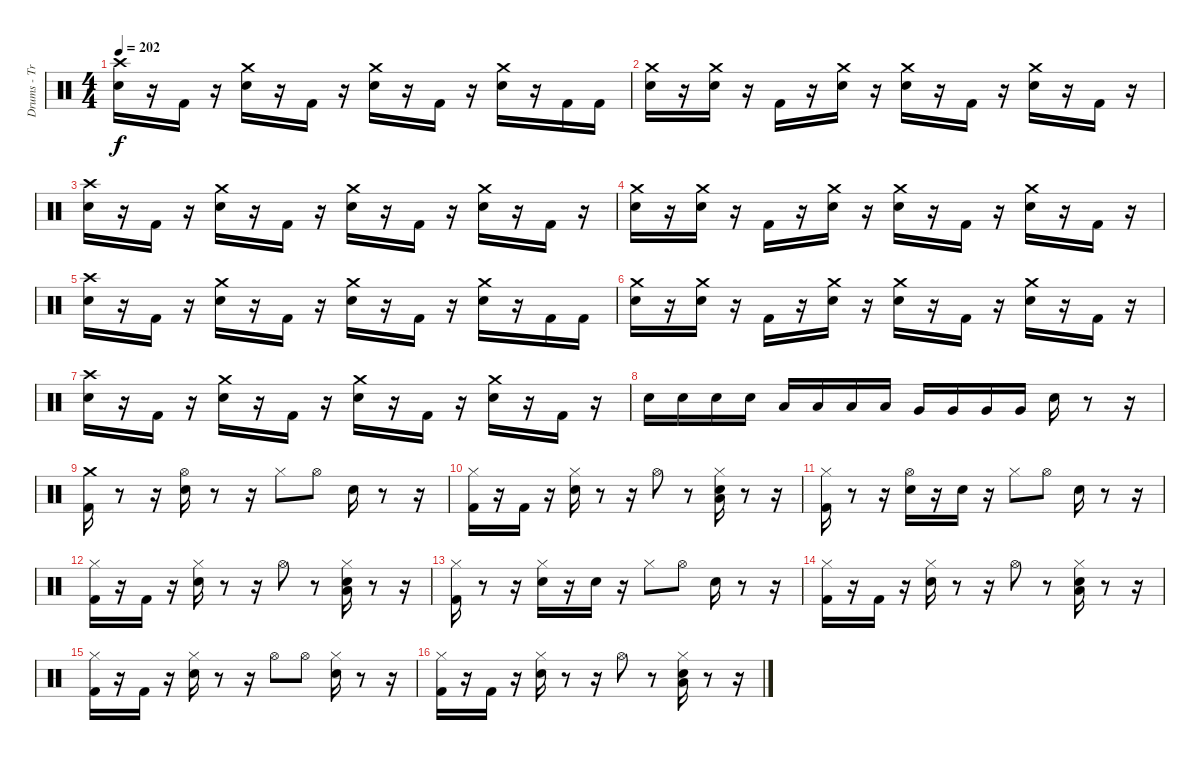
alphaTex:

\track ("Drums - Travis Barker" "Drums - Tr") {instrument percussion}
\staff {score}
\articulation defaults
\ts (4 4)
\tempo 202
\clef neutral
\ks c
("Electric Snare (hit)" "Crash high (hit)").16{dy f} r.16 "Kick (hit) 2".16 r.16 ("Electric Snare (hit)" "Crash medium (hit)").16 r.16 "Kick (hit) 2".16 r.16 ("Electric Snare (hit)" "Crash medium (hit)").16 r.16 "Kick (hit) 2".16 r.16 ("Electric Snare (hit)" "Crash medium (hit)").16 r.16 "Kick (hit) 2".16 "Kick (hit) 2".16 |
("Electric Snare (hit)" "Crash medium (hit)").16 r.16 ("Electric Snare (hit)" "Crash medium (hit)").16 r.16 "Kick (hit) 2".16 r.16 ("Electric Snare (hit)" "Crash medium (hit)").16 r.16 ("Electric Snare (hit)" "Crash medium (hit)").16 r.16 "Kick (hit) 2".16 r.16 ("Electric Snare (hit)" "Crash medium (hit)").16 r.16 "Kick (hit) 2".16 r.16 |
("Electric Snare (hit)" "Crash high (hit)").16 r.16 "Kick (hit) 2".16 r.16 ("Electric Snare (hit)" "Crash medium (hit)").16 r.16 "Kick (hit) 2".16 r.16 ("Electric Snare (hit)" "Crash medium (hit)").16 r.16 "Kick (hit) 2".16 r.16 ("Electric Snare (hit)" "Crash medium (hit)").16 r.16 "Kick (hit) 2".16 r.16 |
("Electric Snare (hit)" "Crash medium (hit)").16 r.16 ("Electric Snare (hit)" "Crash medium (hit)").16 r.16 "Kick (hit) 2".16 r.16 ("Electric Snare (hit)" "Crash medium (hit)").16 r.16 ("Electric Snare (hit)" "Crash medium (hit)").16 r.16 "Kick (hit) 2".16 r.16 ("Electric Snare (hit)" "Crash medium (hit)").16 r.16 "Kick (hit) 2".16 r.16 |
("Electric Snare (hit)" "Crash high (hit)").16 r.16 "Kick (hit) 2".16 r.16 ("Electric Snare (hit)" "Crash medium (hit)").16 r.16 "Kick (hit) 2".16 r.16 ("Electric Snare (hit)" "Crash medium (hit)").16 r.16 "Kick (hit) 2".16 r.16 ("Electric Snare (hit)" "Crash medium (hit)").16 r.16 "Kick (hit) 2".16 "Kick (hit) 2".16 |
("Electric Snare (hit)" "Crash medium (hit)").16 r.16 ("Electric Snare (hit)" "Crash medium (hit)").16 r.16 "Kick (hit) 2".16 r.16 ("Electric Snare (hit)" "Crash medium (hit)").16 r.16 ("Electric Snare (hit)" "Crash medium (hit)").16 r.16 "Kick (hit) 2".16 r.16 ("Electric Snare (hit)" "Crash medium (hit)").16 r.16 "Kick (hit) 2".16 r.16 |
("Electric Snare (hit)" "Crash high (hit)").16 r.16 "Kick (hit) 2".16 r.16 ("Electric Snare (hit)" "Crash medium (hit)").16 r.16 "Kick (hit) 2".16 r.16 ("Electric Snare (hit)" "Crash medium (hit)").16 r.16 "Kick (hit) 2".16 r.16 ("Electric Snare (hit)" "Crash medium (hit)").16 r.16 "Kick (hit) 2".16 r.16 |
"Electric Snare (hit)".16 "Electric Snare (hit)".16 "Electric Snare (hit)".16 "Electric Snare (hit)".16 "Low Tom (hit)".16 "Low Tom (hit)".16 "Low Tom (hit)".16 "Low Tom (hit)".16 "Very Low Tom (hit)".16 "Very Low Tom (hit)".16 "Very Low Tom (hit)".16 "Very Low Tom (hit)".16 "Electric Snare (hit)".16 r.8 r.16 |
("Kick (hit) 2" "Crash medium (hit)").16 r.8 r.16 ("Electric Snare (hit)" "Hi-Hat (open)").16 r.8 r.16 "Hi-Hat (closed)".8 "Hi-Hat (open)".8 "Electric Snare (hit)".16 r.8 r.16 |
("Hi-Hat (closed)" "Kick (hit) 2").16 r.16 "Kick (hit) 2".16 r.16 ("Electric Snare (hit)" "Hi-Hat (closed)").16 r.8 r.16 "Hi-Hat (open)".8 r.8 ("Electric Snare (hit)" "Low Tom (hit)" "Hi-Hat (closed)").16 r.8 r.16 |
("Kick (hit) 2" "Hi-Hat (closed)").16 r.8 r.16 ("Electric Snare (hit)" "Hi-Hat (open)").16 r.16 "Electric Snare (hit)".16 r.16 "Hi-Hat (closed)".8 "Hi-Hat (open)".8 "Electric Snare (hit)".16 r.8 r.16 |
("Hi-Hat (closed)" "Kick (hit) 2").16 r.16 "Kick (hit) 2".16 r.16 ("Electric Snare (hit)" "Hi-Hat (closed)").16 r.8 r.16 "Hi-Hat (open)".8 r.8 ("Electric Snare (hit)" "Low Tom (hit)" "Hi-Hat (closed)").16 r.8 r.16 |
("Kick (hit) 2" "Hi-Hat (closed)").16 r.8 r.16 ("Electric Snare (hit)" "Hi-Hat (closed)").16 r.16 "Electric Snare (hit)".16 r.16 "Hi-Hat (closed)".8 "Hi-Hat (open)".8 "Electric Snare (hit)".16 r.8 r.16 |
("Hi-Hat (closed)" "Kick (hit) 2").16 r.16 "Kick (hit) 2".16 r.16 ("Electric Snare (hit)" "Hi-Hat (closed)").16 r.8 r.16 "Hi-Hat (open)".8 r.8 ("Electric Snare (hit)" "Low Tom (hit)" "Hi-Hat (closed)").16 r.8 r.16 |
("Kick (hit) 2" "Hi-Hat (closed)").16 r.16 "Kick (hit) 2".16 r.16 ("Electric Snare (hit)" "Hi-Hat (closed)").16 r.8 r.16 "Hi-Hat (open)".8 "Hi-Hat (open)".8 ("Electric Snare (hit)" "Hi-Hat (closed)").16 r.8 r.16 |
("Hi-Hat (closed)" "Kick (hit) 2").16 r.16 "Kick (hit) 2".16 r.16 ("Electric Snare (hit)" "Hi-Hat (closed)").16 r.8 r.16 "Hi-Hat (open)".8 r.8 ("Electric Snare (hit)" "Low Tom (hit)" "Hi-Hat (closed)").16 r.8 r.16
